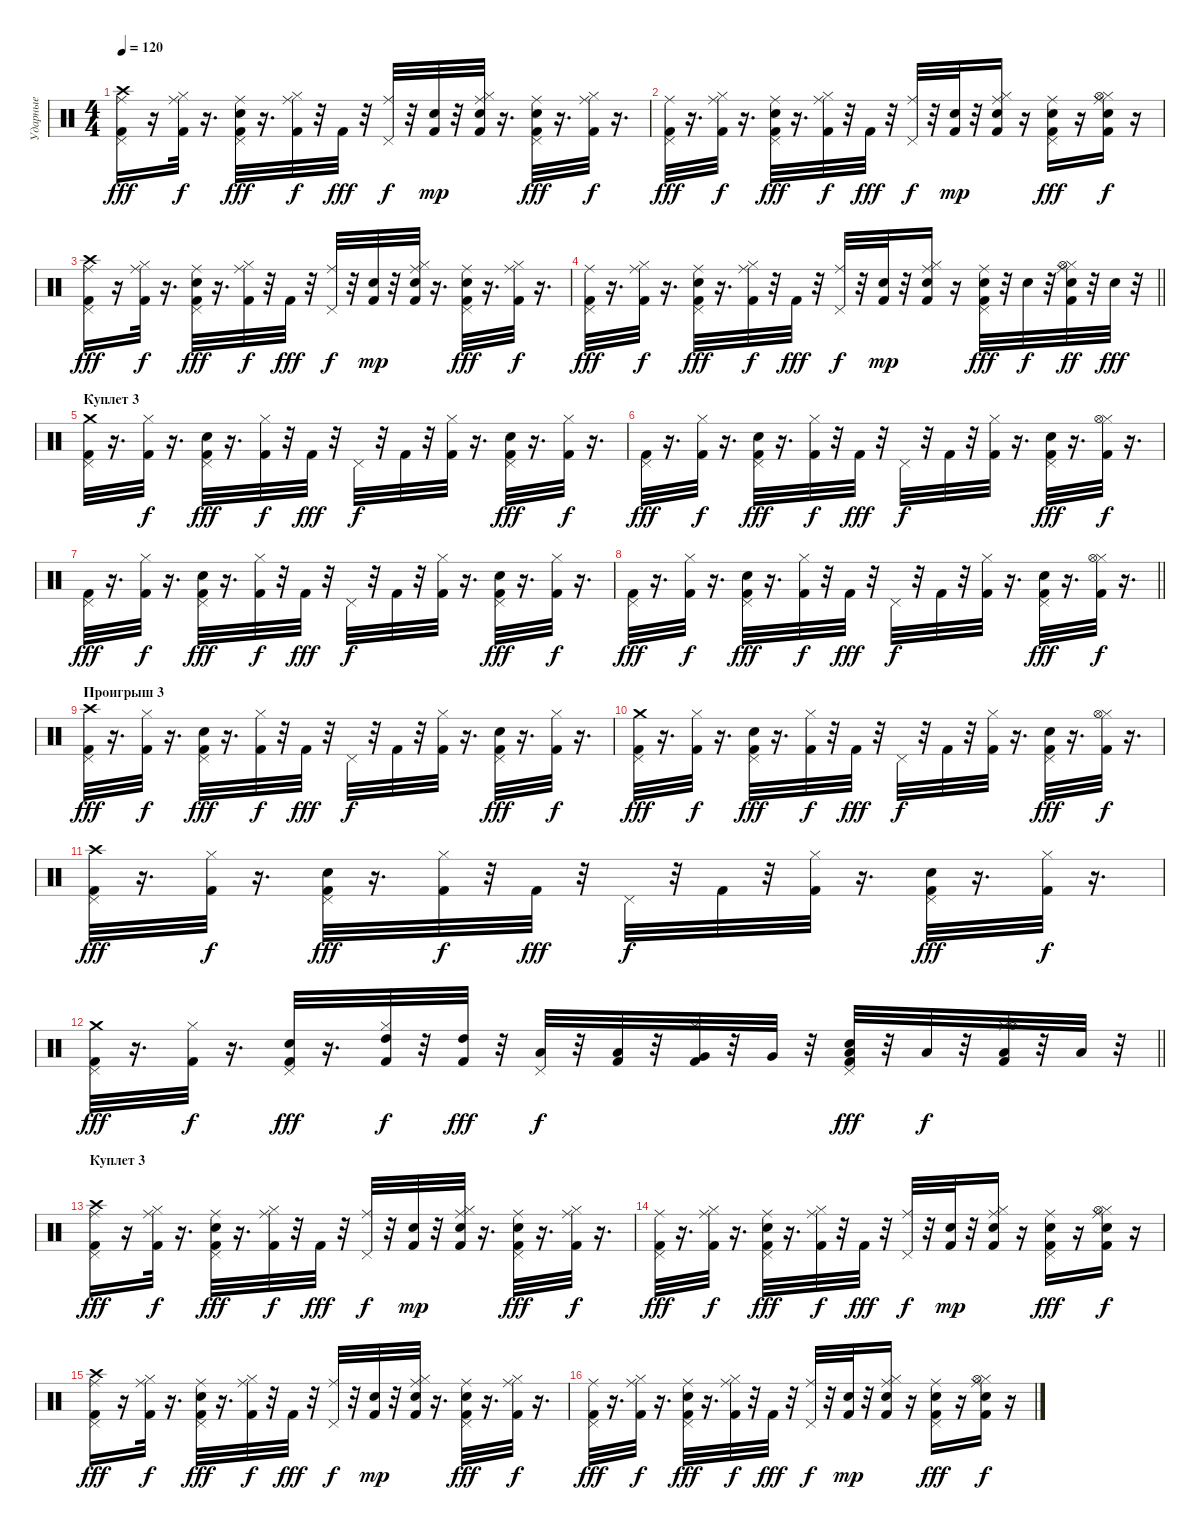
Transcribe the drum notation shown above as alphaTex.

\track ("Ударные" "Ударные") {instrument percussion}
\staff {score}
\articulation defaults
\ts (4 4)
\tempo 120
\clef neutral
\ks c
("Kick (hit) 2" "Pedal Hi-Hat (hit)" "Crash high (hit)" "Ride (middle)").16{dy fff} r.16 ("Kick (hit) 2" "Hi-Hat (closed)" "Ride (middle)").32{dy f} r.16{d} ("Kick (hit) 2" "Snare (hit) 2" "Pedal Hi-Hat (hit)" "Ride (middle)").32{dy fff} r.16{d} ("Kick (hit) 2" "Hi-Hat (closed)" "Ride (middle)").32{dy f} r.32 "Kick (hit) 2".32{dy fff} r.32 ("Pedal Hi-Hat (hit)" "Ride (middle)").32{dy f} r.32 ("Kick (hit) 2" "Snare (hit) 2").32{dy mp} r.32 ("Kick (hit) 2" "Snare (hit) 2" "Hi-Hat (closed)" "Ride (middle)").32 r.16{d} ("Kick (hit) 2" "Snare (hit) 2" "Pedal Hi-Hat (hit)" "Ride (middle)").32{dy fff} r.16{d} ("Kick (hit) 2" "Hi-Hat (closed)" "Ride (middle)").32{dy f} r.16{d} |
("Kick (hit) 2" "Pedal Hi-Hat (hit)" "Ride (middle)").32{dy fff} r.16{d} ("Kick (hit) 2" "Hi-Hat (closed)" "Ride (middle)").32{dy f} r.16{d} ("Kick (hit) 2" "Snare (hit) 2" "Pedal Hi-Hat (hit)" "Ride (middle)").32{dy fff} r.16{d} ("Kick (hit) 2" "Hi-Hat (closed)" "Ride (middle)").32{dy f} r.32 "Kick (hit) 2".32{dy fff} r.32 ("Pedal Hi-Hat (hit)" "Ride (middle)").32{dy f} r.32 ("Kick (hit) 2" "Snare (hit) 2").32{dy mp} r.32 ("Kick (hit) 2" "Snare (hit) 2" "Hi-Hat (closed)" "Ride (middle)").16 r.16 ("Kick (hit) 2" "Snare (hit) 2" "Pedal Hi-Hat (hit)" "Ride (middle)").16{dy fff} r.16 ("Kick (hit) 2" "Snare (hit) 2" "Hi-Hat (closed)" "Hi-Hat (open)" "Ride (middle)").16{dy f} r.16 |
("Kick (hit) 2" "Pedal Hi-Hat (hit)" "Crash high (hit)" "Ride (middle)").16{dy fff} r.16 ("Kick (hit) 2" "Hi-Hat (closed)" "Ride (middle)").32{dy f} r.16{d} ("Kick (hit) 2" "Snare (hit) 2" "Pedal Hi-Hat (hit)" "Ride (middle)").32{dy fff} r.16{d} ("Kick (hit) 2" "Hi-Hat (closed)" "Ride (middle)").32{dy f} r.32 "Kick (hit) 2".32{dy fff} r.32 ("Pedal Hi-Hat (hit)" "Ride (middle)").32{dy f} r.32 ("Kick (hit) 2" "Snare (hit) 2").32{dy mp} r.32 ("Kick (hit) 2" "Snare (hit) 2" "Hi-Hat (closed)" "Ride (middle)").32 r.16{d} ("Kick (hit) 2" "Snare (hit) 2" "Pedal Hi-Hat (hit)" "Ride (middle)").32{dy fff} r.16{d} ("Kick (hit) 2" "Hi-Hat (closed)" "Ride (middle)").32{dy f} r.16{d} |
\barLineRight lightlight
("Kick (hit) 2" "Pedal Hi-Hat (hit)" "Ride (middle)").32{dy fff} r.16{d} ("Kick (hit) 2" "Hi-Hat (closed)" "Ride (middle)").32{dy f} r.16{d} ("Kick (hit) 2" "Snare (hit) 2" "Pedal Hi-Hat (hit)" "Ride (middle)").32{dy fff} r.16{d} ("Kick (hit) 2" "Hi-Hat (closed)" "Ride (middle)").32{dy f} r.32 "Kick (hit) 2".32{dy fff} r.32 ("Pedal Hi-Hat (hit)" "Ride (middle)").32{dy f} r.32 ("Kick (hit) 2" "Snare (hit) 2").32{dy mp} r.32 ("Kick (hit) 2" "Snare (hit) 2" "Hi-Hat (closed)" "Ride (middle)").16 r.16 ("Kick (hit) 2" "Snare (hit) 2" "Pedal Hi-Hat (hit)" "Ride (middle)").32{dy fff} r.32 "Snare (hit) 2".32{dy f} r.32 ("Kick (hit) 2" "Snare (hit) 2" "Hi-Hat (closed)" "Hi-Hat (open)" "Ride (middle)").32{dy ff} r.32 "Snare (hit) 2".32{dy fff} r.32 |
\section ("" "Куплет 3")
("Kick (hit) 2" "Pedal Hi-Hat (hit)" "Crash medium (hit)").32 r.16{d} ("Kick (hit) 2" "Hi-Hat (closed)").32{dy f} r.16{d} ("Kick (hit) 2" "Snare (hit) 2" "Pedal Hi-Hat (hit)").32{dy fff} r.16{d} ("Kick (hit) 2" "Hi-Hat (closed)").32{dy f} r.32 "Kick (hit) 2".32{dy fff} r.32 "Pedal Hi-Hat (hit)".32{dy f} r.32 "Kick (hit) 2".32 r.32 ("Kick (hit) 2" "Hi-Hat (closed)").32 r.16{d} ("Kick (hit) 2" "Snare (hit) 2" "Pedal Hi-Hat (hit)").32{dy fff} r.16{d} ("Kick (hit) 2" "Hi-Hat (closed)").32{dy f} r.16{d} |
("Kick (hit) 2" "Pedal Hi-Hat (hit)").32{dy fff} r.16{d} ("Kick (hit) 2" "Hi-Hat (closed)").32{dy f} r.16{d} ("Kick (hit) 2" "Snare (hit) 2" "Pedal Hi-Hat (hit)").32{dy fff} r.16{d} ("Kick (hit) 2" "Hi-Hat (closed)").32{dy f} r.32 "Kick (hit) 2".32{dy fff} r.32 "Pedal Hi-Hat (hit)".32{dy f} r.32 "Kick (hit) 2".32 r.32 ("Kick (hit) 2" "Hi-Hat (closed)").32 r.16{d} ("Kick (hit) 2" "Snare (hit) 2" "Pedal Hi-Hat (hit)").32{dy fff} r.16{d} ("Kick (hit) 2" "Hi-Hat (closed)" "Hi-Hat (open)").32{dy f} r.16{d} |
("Kick (hit) 2" "Pedal Hi-Hat (hit)").32{dy fff} r.16{d} ("Kick (hit) 2" "Hi-Hat (closed)").32{dy f} r.16{d} ("Kick (hit) 2" "Snare (hit) 2" "Pedal Hi-Hat (hit)").32{dy fff} r.16{d} ("Kick (hit) 2" "Hi-Hat (closed)").32{dy f} r.32 "Kick (hit) 2".32{dy fff} r.32 "Pedal Hi-Hat (hit)".32{dy f} r.32 "Kick (hit) 2".32 r.32 ("Kick (hit) 2" "Hi-Hat (closed)").32 r.16{d} ("Kick (hit) 2" "Snare (hit) 2" "Pedal Hi-Hat (hit)").32{dy fff} r.16{d} ("Kick (hit) 2" "Hi-Hat (closed)").32{dy f} r.16{d} |
\barLineRight lightlight
("Kick (hit) 2" "Pedal Hi-Hat (hit)").32{dy fff} r.16{d} ("Kick (hit) 2" "Hi-Hat (closed)").32{dy f} r.16{d} ("Kick (hit) 2" "Snare (hit) 2" "Pedal Hi-Hat (hit)").32{dy fff} r.16{d} ("Kick (hit) 2" "Hi-Hat (closed)").32{dy f} r.32 "Kick (hit) 2".32{dy fff} r.32 "Pedal Hi-Hat (hit)".32{dy f} r.32 "Kick (hit) 2".32 r.32 ("Kick (hit) 2" "Hi-Hat (closed)").32 r.16{d} ("Kick (hit) 2" "Snare (hit) 2" "Pedal Hi-Hat (hit)").32{dy fff} r.16{d} ("Kick (hit) 2" "Hi-Hat (closed)" "Hi-Hat (open)").32{dy f} r.16{d} |
\section ("" "Проигрыш 3")
("Kick (hit) 2" "Pedal Hi-Hat (hit)" "Crash high (hit)").32{dy fff} r.16{d} ("Kick (hit) 2" "Hi-Hat (closed)").32{dy f} r.16{d} ("Kick (hit) 2" "Snare (hit) 2" "Pedal Hi-Hat (hit)").32{dy fff} r.16{d} ("Kick (hit) 2" "Hi-Hat (closed)").32{dy f} r.32 "Kick (hit) 2".32{dy fff} r.32 "Pedal Hi-Hat (hit)".32{dy f} r.32 "Kick (hit) 2".32 r.32 ("Kick (hit) 2" "Hi-Hat (closed)").32 r.16{d} ("Kick (hit) 2" "Snare (hit) 2" "Pedal Hi-Hat (hit)").32{dy fff} r.16{d} ("Kick (hit) 2" "Hi-Hat (closed)").32{dy f} r.16{d} |
("Kick (hit) 2" "Pedal Hi-Hat (hit)" "Crash medium (hit)").32{dy fff} r.16{d} ("Kick (hit) 2" "Hi-Hat (closed)").32{dy f} r.16{d} ("Kick (hit) 2" "Snare (hit) 2" "Pedal Hi-Hat (hit)").32{dy fff} r.16{d} ("Kick (hit) 2" "Hi-Hat (closed)").32{dy f} r.32 "Kick (hit) 2".32{dy fff} r.32 "Pedal Hi-Hat (hit)".32{dy f} r.32 "Kick (hit) 2".32 r.32 ("Kick (hit) 2" "Hi-Hat (closed)").32 r.16{d} ("Kick (hit) 2" "Snare (hit) 2" "Pedal Hi-Hat (hit)").32{dy fff} r.16{d} ("Kick (hit) 2" "Hi-Hat (closed)" "Hi-Hat (open)").32{dy f} r.16{d} |
("Kick (hit) 2" "Pedal Hi-Hat (hit)" "Crash high (hit)").32{dy fff} r.16{d} ("Kick (hit) 2" "Hi-Hat (closed)").32{dy f} r.16{d} ("Kick (hit) 2" "Snare (hit) 2" "Pedal Hi-Hat (hit)").32{dy fff} r.16{d} ("Kick (hit) 2" "Hi-Hat (closed)").32{dy f} r.32 "Kick (hit) 2".32{dy fff} r.32 "Pedal Hi-Hat (hit)".32{dy f} r.32 "Kick (hit) 2".32 r.32 ("Kick (hit) 2" "Hi-Hat (closed)").32 r.16{d} ("Kick (hit) 2" "Snare (hit) 2" "Pedal Hi-Hat (hit)").32{dy fff} r.16{d} ("Kick (hit) 2" "Hi-Hat (closed)").32{dy f} r.16{d} |
\barLineRight lightlight
("Kick (hit) 2" "Pedal Hi-Hat (hit)" "Crash medium (hit)").32{dy fff} r.16{d} ("Kick (hit) 2" "Hi-Hat (closed)").32{dy f} r.16{d} ("Kick (hit) 2" "Snare (hit) 2" "Pedal Hi-Hat (hit)").32{dy fff} r.16{d} ("Kick (hit) 2" "Hi-Hat (closed)" "High Tom (hit)").32{dy f} r.32 ("Kick (hit) 2" "High Tom (hit)").32{dy fff} r.32 ("Pedal Hi-Hat (hit)" "Low Tom (hit)").32{dy f} r.32 ("Kick (hit) 2" "Low Tom (hit)").32 r.32 ("Kick (hit) 2" "Hi-Hat (closed)" "Very Low Tom (hit)").32 r.32 "Very Low Tom (hit)".32 r.32 ("Kick (hit) 2" "Snare (hit) 2" "Low Floor Tom (hit)" "Pedal Hi-Hat (hit)").32{dy fff} r.32 "Low Floor Tom (hit)".32{dy f} r.32 ("Kick (hit) 2" "Low Floor Tom (hit)" "Hi-Hat (closed)" "Hi-Hat (open)").32 r.32 "Low Floor Tom (hit)".32 r.32 |
\section ("" "Куплет 3")
("Kick (hit) 2" "Pedal Hi-Hat (hit)" "Crash high (hit)" "Ride (middle)").16{dy fff} r.16 ("Kick (hit) 2" "Hi-Hat (closed)" "Ride (middle)").32{dy f} r.16{d} ("Kick (hit) 2" "Snare (hit) 2" "Pedal Hi-Hat (hit)" "Ride (middle)").32{dy fff} r.16{d} ("Kick (hit) 2" "Hi-Hat (closed)" "Ride (middle)").32{dy f} r.32 "Kick (hit) 2".32{dy fff} r.32 ("Pedal Hi-Hat (hit)" "Ride (middle)").32{dy f} r.32 ("Kick (hit) 2" "Snare (hit) 2").32{dy mp} r.32 ("Kick (hit) 2" "Snare (hit) 2" "Hi-Hat (closed)" "Ride (middle)").32 r.16{d} ("Kick (hit) 2" "Snare (hit) 2" "Pedal Hi-Hat (hit)" "Ride (middle)").32{dy fff} r.16{d} ("Kick (hit) 2" "Hi-Hat (closed)" "Ride (middle)").32{dy f} r.16{d} |
("Kick (hit) 2" "Pedal Hi-Hat (hit)" "Ride (middle)").32{dy fff} r.16{d} ("Kick (hit) 2" "Hi-Hat (closed)" "Ride (middle)").32{dy f} r.16{d} ("Kick (hit) 2" "Snare (hit) 2" "Pedal Hi-Hat (hit)" "Ride (middle)").32{dy fff} r.16{d} ("Kick (hit) 2" "Hi-Hat (closed)" "Ride (middle)").32{dy f} r.32 "Kick (hit) 2".32{dy fff} r.32 ("Pedal Hi-Hat (hit)" "Ride (middle)").32{dy f} r.32 ("Kick (hit) 2" "Snare (hit) 2").32{dy mp} r.32 ("Kick (hit) 2" "Snare (hit) 2" "Hi-Hat (closed)" "Ride (middle)").16 r.16 ("Kick (hit) 2" "Snare (hit) 2" "Pedal Hi-Hat (hit)" "Ride (middle)").16{dy fff} r.16 ("Kick (hit) 2" "Snare (hit) 2" "Hi-Hat (closed)" "Hi-Hat (open)" "Ride (middle)").16{dy f} r.16 |
("Kick (hit) 2" "Pedal Hi-Hat (hit)" "Crash high (hit)" "Ride (middle)").16{dy fff} r.16 ("Kick (hit) 2" "Hi-Hat (closed)" "Ride (middle)").32{dy f} r.16{d} ("Kick (hit) 2" "Snare (hit) 2" "Pedal Hi-Hat (hit)" "Ride (middle)").32{dy fff} r.16{d} ("Kick (hit) 2" "Hi-Hat (closed)" "Ride (middle)").32{dy f} r.32 "Kick (hit) 2".32{dy fff} r.32 ("Pedal Hi-Hat (hit)" "Ride (middle)").32{dy f} r.32 ("Kick (hit) 2" "Snare (hit) 2").32{dy mp} r.32 ("Kick (hit) 2" "Snare (hit) 2" "Hi-Hat (closed)" "Ride (middle)").32 r.16{d} ("Kick (hit) 2" "Snare (hit) 2" "Pedal Hi-Hat (hit)" "Ride (middle)").32{dy fff} r.16{d} ("Kick (hit) 2" "Hi-Hat (closed)" "Ride (middle)").32{dy f} r.16{d} |
("Kick (hit) 2" "Pedal Hi-Hat (hit)" "Ride (middle)").32{dy fff} r.16{d} ("Kick (hit) 2" "Hi-Hat (closed)" "Ride (middle)").32{dy f} r.16{d} ("Kick (hit) 2" "Snare (hit) 2" "Pedal Hi-Hat (hit)" "Ride (middle)").32{dy fff} r.16{d} ("Kick (hit) 2" "Hi-Hat (closed)" "Ride (middle)").32{dy f} r.32 "Kick (hit) 2".32{dy fff} r.32 ("Pedal Hi-Hat (hit)" "Ride (middle)").32{dy f} r.32 ("Kick (hit) 2" "Snare (hit) 2").32{dy mp} r.32 ("Kick (hit) 2" "Snare (hit) 2" "Hi-Hat (closed)" "Ride (middle)").16 r.16 ("Kick (hit) 2" "Snare (hit) 2" "Pedal Hi-Hat (hit)" "Ride (middle)").16{dy fff} r.16 ("Kick (hit) 2" "Snare (hit) 2" "Hi-Hat (closed)" "Hi-Hat (open)" "Ride (middle)").16{dy f} r.16
